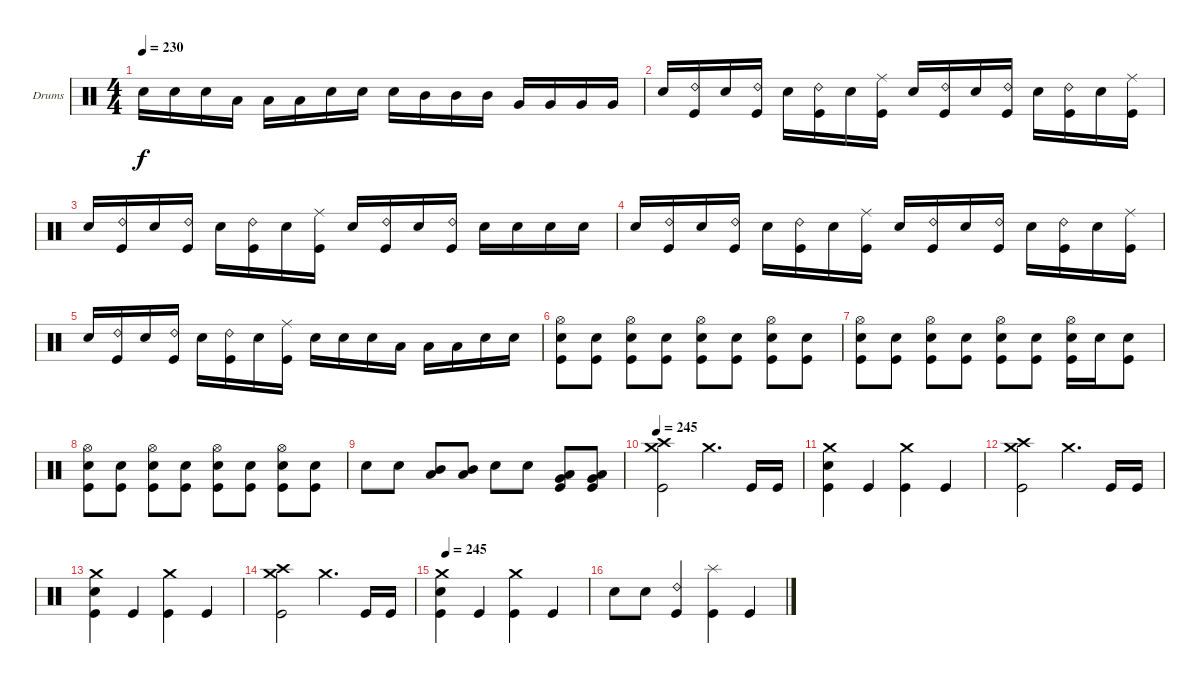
\bracketExtendMode groupsimilarinstruments
\firstSystemTrackNameOrientation horizontal
\otherSystemsTrackNameOrientation horizontal
\track ("Drumkit" "Drums") {instrument percussion}
\staff {score}
\articulation defaults
\ts (4 4)
\tempo 230
\clef neutral
\ks c "Snare (hit) 2".16{dy f} "Snare (hit) 2".16 "Snare (hit) 2".16 "Low Tom (hit)".16 "Low Tom (hit)".16 "Low Tom (hit)".16 "Snare (hit) 2".16 "Snare (hit) 2".16 "Snare (hit) 2".16 "Mid Tom (hit)".16 "Mid Tom (hit)".16 "Mid Tom (hit)".16 "Very Low Tom (hit)".16 "Very Low Tom (hit)".16 "Very Low Tom (hit)".16 "Very Low Tom (hit)".16
|
"Snare (hit) 2".16 ("Ride (bell) 2" "Kick (hit)").16 "Snare (hit) 2".16 ("Ride (bell) 2" "Kick (hit)").16 "Snare (hit) 2".16 ("Ride (bell) 2" "Kick (hit)").16 "Snare (hit) 2".16 ("Ride (middle)" "Kick (hit)").16 "Snare (hit) 2".16 ("Ride (bell) 2" "Kick (hit)").16 "Snare (hit) 2".16 ("Ride (bell) 2" "Kick (hit)").16 "Snare (hit) 2".16 ("Ride (bell) 2" "Kick (hit)").16 "Snare (hit) 2".16 ("Ride (middle)" "Kick (hit)").16 |
"Snare (hit) 2".16 ("Ride (bell) 2" "Kick (hit)").16 "Snare (hit) 2".16 ("Ride (bell) 2" "Kick (hit)").16 "Snare (hit) 2".16 ("Ride (bell) 2" "Kick (hit)").16 "Snare (hit) 2".16 ("Ride (middle)" "Kick (hit)").16 "Snare (hit) 2".16 ("Ride (bell) 2" "Kick (hit)").16 "Snare (hit) 2".16 ("Ride (bell) 2" "Kick (hit)").16 "Snare (hit) 2".16 "Snare (hit) 2".16 "Snare (hit) 2".16 "Snare (hit) 2".16 |
"Snare (hit) 2".16 ("Ride (bell) 2" "Kick (hit)").16 "Snare (hit) 2".16 ("Ride (bell) 2" "Kick (hit)").16 "Snare (hit) 2".16 ("Ride (bell) 2" "Kick (hit)").16 "Snare (hit) 2".16 ("Ride (middle)" "Kick (hit)").16 "Snare (hit) 2".16 ("Ride (bell) 2" "Kick (hit)").16 "Snare (hit) 2".16 ("Ride (bell) 2" "Kick (hit)").16 "Snare (hit) 2".16 ("Ride (bell) 2" "Kick (hit)").16 "Snare (hit) 2".16 ("Ride (middle)" "Kick (hit)").16 |
"Snare (hit) 2".16 ("Ride (bell) 2" "Kick (hit)").16 "Snare (hit) 2".16 ("Ride (bell) 2" "Kick (hit)").16 "Snare (hit) 2".16 ("Ride (bell) 2" "Kick (hit)").16 "Snare (hit) 2".16 ("Ride (middle)" "Kick (hit)").16 "Snare (hit) 2".16 "Snare (hit) 2".16 "Snare (hit) 2".16 "Low Tom (hit)".16 "Low Tom (hit)".16 "Low Tom (hit)".16 "Snare (hit) 2".16 "Snare (hit) 2".16 |
("Hi-Hat (open)" "Snare (hit) 2" "Kick (hit)").8 ("Snare (hit) 2" "Kick (hit)").8 ("Hi-Hat (open)" "Snare (hit) 2" "Kick (hit)").8 ("Snare (hit) 2" "Kick (hit)").8 ("Hi-Hat (open)" "Snare (hit) 2" "Kick (hit)").8 ("Snare (hit) 2" "Kick (hit)").8 ("Hi-Hat (open)" "Snare (hit) 2" "Kick (hit)").8 ("Snare (hit) 2" "Kick (hit)").8 |
("Hi-Hat (open)" "Snare (hit) 2" "Kick (hit)").8 ("Snare (hit) 2" "Kick (hit)").8 ("Hi-Hat (open)" "Snare (hit) 2" "Kick (hit)").8 ("Snare (hit) 2" "Kick (hit)").8 ("Hi-Hat (open)" "Snare (hit) 2" "Kick (hit)").8 ("Snare (hit) 2" "Kick (hit)").8 ("Hi-Hat (open)" "Snare (hit) 2" "Kick (hit)").16 "Snare (hit) 2".16 ("Snare (hit) 2" "Kick (hit)").8 |
("Hi-Hat (open)" "Snare (hit) 2" "Kick (hit)").8 ("Snare (hit) 2" "Kick (hit)").8 ("Hi-Hat (open)" "Snare (hit) 2" "Kick (hit)").8 ("Snare (hit) 2" "Kick (hit)").8 ("Hi-Hat (open)" "Snare (hit) 2" "Kick (hit)").8 ("Snare (hit) 2" "Kick (hit)").8 ("Hi-Hat (open)" "Snare (hit) 2" "Kick (hit)").8 ("Snare (hit) 2" "Kick (hit)").8 |
"Snare (hit) 2".8 "Snare (hit) 2".8 ("Low Tom (hit)" "Mid Tom (hit)").8 ("Low Tom (hit)" "Mid Tom (hit)").8 "Snare (hit) 2".8 "Snare (hit) 2".8 ("Very Low Tom (hit)" "Low Tom (hit)" "Kick (hit)").8 ("Very Low Tom (hit)" "Low Tom (hit)" "Kick (hit)").8 |
\tempo 245
("Crash high (hit)" "Crash medium (hit)" "Kick (hit)").2 "Crash medium (hit)".4{d} "Kick (hit)".16 "Kick (hit)".16 |
("Crash medium (hit)" "Snare (hit) 2" "Kick (hit)").4 "Kick (hit)".4 ("Crash medium (hit)" "Kick (hit)").4 "Kick (hit)".4 |
("Crash high (hit)" "Crash medium (hit)" "Kick (hit)").2 "Crash medium (hit)".4{d} "Kick (hit)".16 "Kick (hit)".16 |
("Crash medium (hit)" "Snare (hit) 2" "Kick (hit)").4 "Kick (hit)".4 ("Crash medium (hit)" "Kick (hit)").4 "Kick (hit)".4 |
("Crash high (hit)" "Crash medium (hit)" "Kick (hit)").2 "Crash medium (hit)".4{d} "Kick (hit)".16 "Kick (hit)".16 |
\tempo (245 0.03125)
("Crash medium (hit)" "Snare (hit) 2" "Kick (hit)").4 "Kick (hit)".4 ("Crash medium (hit)" "Kick (hit)").4 "Kick (hit)".4 |
"Snare (hit) 2".8 "Snare (hit) 2".8 ("Ride (bell) 2" "Kick (hit)").4 ("Splash (hit)" "Kick (hit)").4 "Kick (hit)".4
